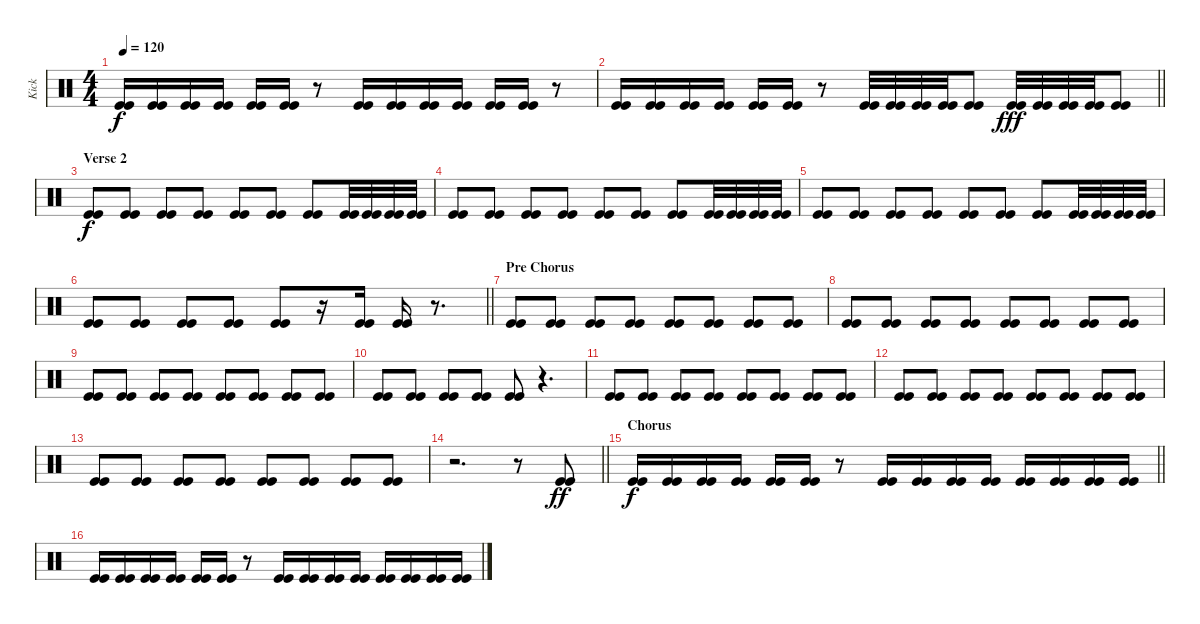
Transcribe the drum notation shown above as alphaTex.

\track ("Kick" "Kick") {instrument percussion}
\staff {score}
\articulation defaults
\ts (4 4)
\tempo 120
\clef neutral
\ks c
("Kick (hit)" "Kick (hit)").16{dy f} ("Kick (hit)" "Kick (hit)").16 ("Kick (hit)" "Kick (hit)").16 ("Kick (hit)" "Kick (hit)").16 ("Kick (hit)" "Kick (hit)").16 ("Kick (hit)" "Kick (hit)").16 r.8 ("Kick (hit)" "Kick (hit)").16 ("Kick (hit)" "Kick (hit)").16 ("Kick (hit)" "Kick (hit)").16 ("Kick (hit)" "Kick (hit)").16 ("Kick (hit)" "Kick (hit)").16 ("Kick (hit)" "Kick (hit)").16 r.8 |
\barLineRight lightlight
("Kick (hit)" "Kick (hit)").16 ("Kick (hit)" "Kick (hit)").16 ("Kick (hit)" "Kick (hit)").16 ("Kick (hit)" "Kick (hit)").16 ("Kick (hit)" "Kick (hit)").16 ("Kick (hit)" "Kick (hit)").16 r.8 ("Kick (hit)" "Kick (hit)").32 ("Kick (hit)" "Kick (hit)").32 ("Kick (hit)" "Kick (hit)").32 ("Kick (hit)" "Kick (hit)").32 ("Kick (hit)" "Kick (hit)").8 ("Kick (hit)" "Kick (hit)").32{dy fff} ("Kick (hit)" "Kick (hit)").32 ("Kick (hit)" "Kick (hit)").32 ("Kick (hit)" "Kick (hit)").32 ("Kick (hit)" "Kick (hit)").8 |
\section ("" "Verse 2")
("Kick (hit)" "Kick (hit)").8{dy f} ("Kick (hit)" "Kick (hit)").8 ("Kick (hit)" "Kick (hit)").8 ("Kick (hit)" "Kick (hit)").8 ("Kick (hit)" "Kick (hit)").8 ("Kick (hit)" "Kick (hit)").8 ("Kick (hit)" "Kick (hit)").8 ("Kick (hit)" "Kick (hit)").32 ("Kick (hit)" "Kick (hit)").32 ("Kick (hit)" "Kick (hit)").32 ("Kick (hit)" "Kick (hit)").32 |
("Kick (hit)" "Kick (hit)").8 ("Kick (hit)" "Kick (hit)").8 ("Kick (hit)" "Kick (hit)").8 ("Kick (hit)" "Kick (hit)").8 ("Kick (hit)" "Kick (hit)").8 ("Kick (hit)" "Kick (hit)").8 ("Kick (hit)" "Kick (hit)").8 ("Kick (hit)" "Kick (hit)").32 ("Kick (hit)" "Kick (hit)").32 ("Kick (hit)" "Kick (hit)").32 ("Kick (hit)" "Kick (hit)").32 |
("Kick (hit)" "Kick (hit)").8 ("Kick (hit)" "Kick (hit)").8 ("Kick (hit)" "Kick (hit)").8 ("Kick (hit)" "Kick (hit)").8 ("Kick (hit)" "Kick (hit)").8 ("Kick (hit)" "Kick (hit)").8 ("Kick (hit)" "Kick (hit)").8 ("Kick (hit)" "Kick (hit)").32 ("Kick (hit)" "Kick (hit)").32 ("Kick (hit)" "Kick (hit)").32 ("Kick (hit)" "Kick (hit)").32 |
\barLineRight lightlight
("Kick (hit)" "Kick (hit)").8 ("Kick (hit)" "Kick (hit)").8 ("Kick (hit)" "Kick (hit)").8 ("Kick (hit)" "Kick (hit)").8 ("Kick (hit)" "Kick (hit)").8 r.16 ("Kick (hit)" "Kick (hit)").16 ("Kick (hit)" "Kick (hit)").16 r.8{d} |
\section ("" "Pre Chorus")
("Kick (hit)" "Kick (hit)").8 ("Kick (hit)" "Kick (hit)").8 ("Kick (hit)" "Kick (hit)").8 ("Kick (hit)" "Kick (hit)").8 ("Kick (hit)" "Kick (hit)").8 ("Kick (hit)" "Kick (hit)").8 ("Kick (hit)" "Kick (hit)").8 ("Kick (hit)" "Kick (hit)").8 |
("Kick (hit)" "Kick (hit)").8 ("Kick (hit)" "Kick (hit)").8 ("Kick (hit)" "Kick (hit)").8 ("Kick (hit)" "Kick (hit)").8 ("Kick (hit)" "Kick (hit)").8 ("Kick (hit)" "Kick (hit)").8 ("Kick (hit)" "Kick (hit)").8 ("Kick (hit)" "Kick (hit)").8 |
("Kick (hit)" "Kick (hit)").8 ("Kick (hit)" "Kick (hit)").8 ("Kick (hit)" "Kick (hit)").8 ("Kick (hit)" "Kick (hit)").8 ("Kick (hit)" "Kick (hit)").8 ("Kick (hit)" "Kick (hit)").8 ("Kick (hit)" "Kick (hit)").8 ("Kick (hit)" "Kick (hit)").8 |
("Kick (hit)" "Kick (hit)").8 ("Kick (hit)" "Kick (hit)").8 ("Kick (hit)" "Kick (hit)").8 ("Kick (hit)" "Kick (hit)").8 ("Kick (hit)" "Kick (hit)").8 r.4{d} |
("Kick (hit)" "Kick (hit)").8 ("Kick (hit)" "Kick (hit)").8 ("Kick (hit)" "Kick (hit)").8 ("Kick (hit)" "Kick (hit)").8 ("Kick (hit)" "Kick (hit)").8 ("Kick (hit)" "Kick (hit)").8 ("Kick (hit)" "Kick (hit)").8 ("Kick (hit)" "Kick (hit)").8 |
("Kick (hit)" "Kick (hit)").8 ("Kick (hit)" "Kick (hit)").8 ("Kick (hit)" "Kick (hit)").8 ("Kick (hit)" "Kick (hit)").8 ("Kick (hit)" "Kick (hit)").8 ("Kick (hit)" "Kick (hit)").8 ("Kick (hit)" "Kick (hit)").8 ("Kick (hit)" "Kick (hit)").8 |
("Kick (hit)" "Kick (hit)").8 ("Kick (hit)" "Kick (hit)").8 ("Kick (hit)" "Kick (hit)").8 ("Kick (hit)" "Kick (hit)").8 ("Kick (hit)" "Kick (hit)").8 ("Kick (hit)" "Kick (hit)").8 ("Kick (hit)" "Kick (hit)").8 ("Kick (hit)" "Kick (hit)").8 |
\barLineRight lightlight
r.2{d} r.8 ("Kick (hit)" "Kick (hit)").8{dy ff} |
\section ("" "Chorus")
\barLineRight lightlight
("Kick (hit)" "Kick (hit)").16{dy f} ("Kick (hit)" "Kick (hit)").16 ("Kick (hit)" "Kick (hit)").16 ("Kick (hit)" "Kick (hit)").16 ("Kick (hit)" "Kick (hit)").16 ("Kick (hit)" "Kick (hit)").16 r.8 ("Kick (hit)" "Kick (hit)").16 ("Kick (hit)" "Kick (hit)").16 ("Kick (hit)" "Kick (hit)").16 ("Kick (hit)" "Kick (hit)").16 ("Kick (hit)" "Kick (hit)").16 ("Kick (hit)" "Kick (hit)").16 ("Kick (hit)" "Kick (hit)").16 ("Kick (hit)" "Kick (hit)").16 |
("Kick (hit)" "Kick (hit)").16 ("Kick (hit)" "Kick (hit)").16 ("Kick (hit)" "Kick (hit)").16 ("Kick (hit)" "Kick (hit)").16 ("Kick (hit)" "Kick (hit)").16 ("Kick (hit)" "Kick (hit)").16 r.8 ("Kick (hit)" "Kick (hit)").16 ("Kick (hit)" "Kick (hit)").16 ("Kick (hit)" "Kick (hit)").16 ("Kick (hit)" "Kick (hit)").16 ("Kick (hit)" "Kick (hit)").16 ("Kick (hit)" "Kick (hit)").16 ("Kick (hit)" "Kick (hit)").16 ("Kick (hit)" "Kick (hit)").16
